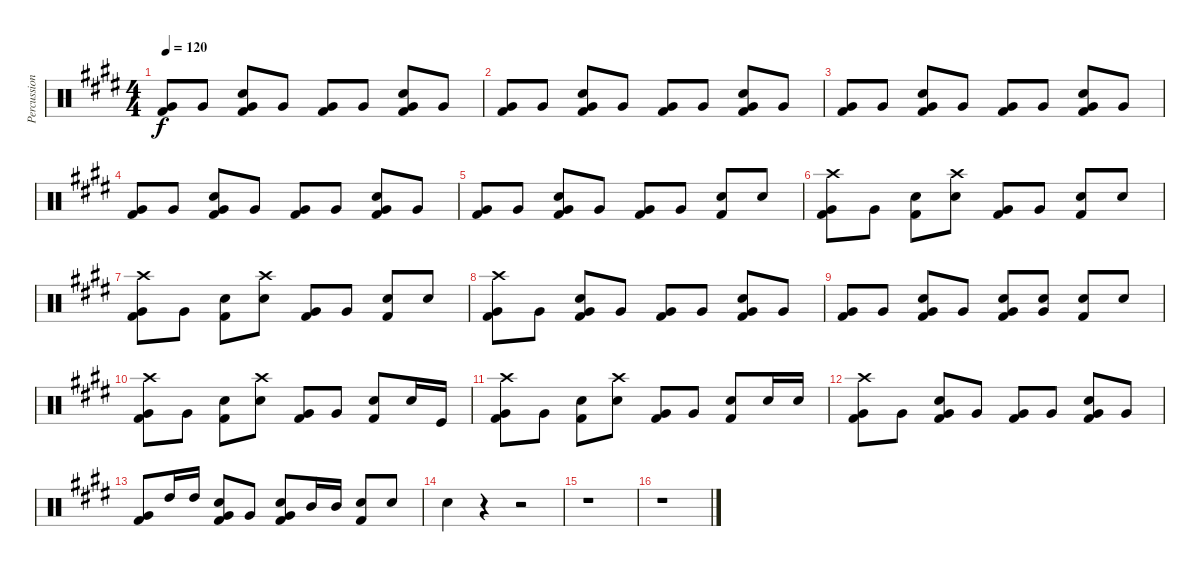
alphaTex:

\track ("Percussion" "Percussion") {instrument percussion}
\staff {score}
\articulation defaults
\ts (4 4)
\tempo 120
\clef neutral
\ks e
("Very Low Tom (hit)" "Kick (hit) 2").8{dy f} "Very Low Tom (hit)".8 ("Snare (hit) 2" "Very Low Tom (hit)" "Kick (hit) 2").8 "Very Low Tom (hit)".8 ("Very Low Tom (hit)" "Kick (hit) 2").8 "Very Low Tom (hit)".8 ("Snare (hit) 2" "Very Low Tom (hit)" "Kick (hit) 2").8 "Very Low Tom (hit)".8 |
("Very Low Tom (hit)" "Kick (hit) 2").8 "Very Low Tom (hit)".8 ("Snare (hit) 2" "Very Low Tom (hit)" "Kick (hit) 2").8 "Very Low Tom (hit)".8 ("Very Low Tom (hit)" "Kick (hit) 2").8 "Very Low Tom (hit)".8 ("Snare (hit) 2" "Very Low Tom (hit)" "Kick (hit) 2").8 "Very Low Tom (hit)".8 |
("Very Low Tom (hit)" "Kick (hit) 2").8 "Very Low Tom (hit)".8 ("Snare (hit) 2" "Very Low Tom (hit)" "Kick (hit) 2").8 "Very Low Tom (hit)".8 ("Very Low Tom (hit)" "Kick (hit) 2").8 "Very Low Tom (hit)".8 ("Snare (hit) 2" "Very Low Tom (hit)" "Kick (hit) 2").8 "Very Low Tom (hit)".8 |
("Very Low Tom (hit)" "Kick (hit) 2").8 "Very Low Tom (hit)".8 ("Snare (hit) 2" "Very Low Tom (hit)" "Kick (hit) 2").8 "Very Low Tom (hit)".8 ("Very Low Tom (hit)" "Kick (hit) 2").8 "Very Low Tom (hit)".8 ("Snare (hit) 2" "Very Low Tom (hit)" "Kick (hit) 2").8 "Very Low Tom (hit)".8 |
("Very Low Tom (hit)" "Kick (hit) 2").8 "Very Low Tom (hit)".8 ("Snare (hit) 2" "Very Low Tom (hit)" "Kick (hit) 2").8 "Very Low Tom (hit)".8 ("Very Low Tom (hit)" "Kick (hit) 2").8 "Very Low Tom (hit)".8 ("Snare (hit) 2" "Kick (hit) 2").8 "Snare (hit) 2".8 |
("Crash high (hit)" "Very Low Tom (hit)" "Kick (hit) 2").8 "Very Low Tom (hit)".8 ("Snare (hit) 2" "Kick (hit) 2").8 ("Crash high (hit)" "Snare (hit) 2").8 ("Very Low Tom (hit)" "Kick (hit) 2").8 "Very Low Tom (hit)".8 ("Snare (hit) 2" "Kick (hit) 2").8 "Snare (hit) 2".8 |
("Crash high (hit)" "Very Low Tom (hit)" "Kick (hit) 2").8 "Very Low Tom (hit)".8 ("Snare (hit) 2" "Kick (hit) 2").8 ("Crash high (hit)" "Snare (hit) 2").8 ("Very Low Tom (hit)" "Kick (hit) 2").8 "Very Low Tom (hit)".8 ("Snare (hit) 2" "Kick (hit) 2").8 "Snare (hit) 2".8 |
("Crash high (hit)" "Very Low Tom (hit)" "Kick (hit) 2").8 "Very Low Tom (hit)".8 ("Snare (hit) 2" "Very Low Tom (hit)" "Kick (hit) 2").8 "Very Low Tom (hit)".8 ("Very Low Tom (hit)" "Kick (hit) 2").8 "Very Low Tom (hit)".8 ("Snare (hit) 2" "Very Low Tom (hit)" "Kick (hit) 2").8 "Very Low Tom (hit)".8 |
("Very Low Tom (hit)" "Kick (hit) 2").8 "Very Low Tom (hit)".8 ("Snare (hit) 2" "Very Low Tom (hit)" "Kick (hit) 2").8 "Very Low Tom (hit)".8 ("Snare (hit) 2" "Very Low Tom (hit)" "Kick (hit) 2").8 ("Snare (hit) 2" "Very Low Tom (hit)").8 ("Snare (hit) 2" "Kick (hit) 2").8 "Snare (hit) 2".8 |
("Crash high (hit)" "Very Low Tom (hit)" "Kick (hit) 2").8 "Very Low Tom (hit)".8 ("Snare (hit) 2" "Kick (hit) 2").8 ("Crash high (hit)" "Snare (hit) 2").8 ("Very Low Tom (hit)" "Kick (hit) 2").8 "Very Low Tom (hit)".8 ("Snare (hit) 2" "Kick (hit) 2").8 "Snare (hit) 2".16 "Kick (hit)".16 |
("Crash high (hit)" "Very Low Tom (hit)" "Kick (hit) 2").8 "Very Low Tom (hit)".8 ("Snare (hit) 2" "Kick (hit) 2").8 ("Crash high (hit)" "Snare (hit) 2").8 ("Very Low Tom (hit)" "Kick (hit) 2").8 "Very Low Tom (hit)".8 ("Snare (hit) 2" "Kick (hit) 2").8 "Snare (hit) 2".16 "Snare (hit) 2".16 |
("Crash high (hit)" "Very Low Tom (hit)" "Kick (hit) 2").8 "Very Low Tom (hit)".8 ("Snare (hit) 2" "Very Low Tom (hit)" "Kick (hit) 2").8 "Very Low Tom (hit)".8 ("Very Low Tom (hit)" "Kick (hit) 2").8 "Very Low Tom (hit)".8 ("Snare (hit) 2" "Very Low Tom (hit)" "Kick (hit) 2").8 "Very Low Tom (hit)".8 |
("Very Low Tom (hit)" "Kick (hit) 2").8 "High Tom (hit)".16 "High Tom (hit)".16 ("Snare (hit) 2" "Very Low Tom (hit)" "Kick (hit) 2").8 "Very Low Tom (hit)".8 ("Snare (hit) 2" "Very Low Tom (hit)" "Kick (hit) 2").8 "Mid Tom (hit)".16 "Mid Tom (hit)".16 ("Snare (hit) 2" "Kick (hit) 2").8 "Snare (hit) 2".8 |
"Snare (hit) 2".4 r.4 r.2 |
r.1 |
r.1
